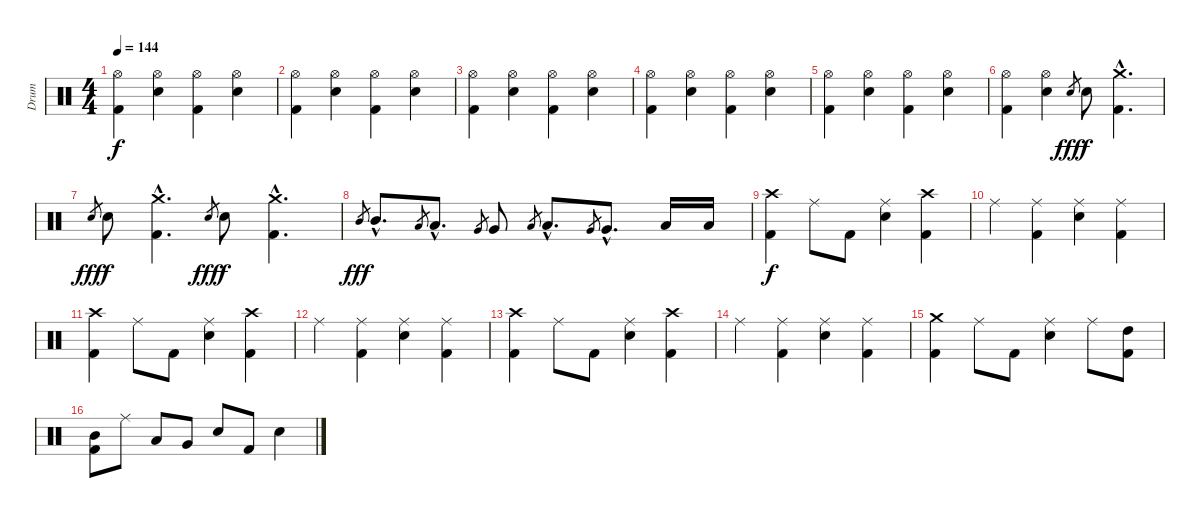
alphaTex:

\track ("Drum" "Drum") {instrument percussion}
\staff {score}
\articulation defaults
\ts (4 4)
\tempo 144
\clef neutral
\ks c
("Hi-Hat (open)" "Kick (hit) 2").4{dy f} ("Hi-Hat (open)" "Electric Snare (hit)").4 ("Hi-Hat (open)" "Kick (hit) 2").4 ("Hi-Hat (open)" "Electric Snare (hit)").4 |
("Hi-Hat (open)" "Kick (hit) 2").4 ("Hi-Hat (open)" "Electric Snare (hit)").4 ("Hi-Hat (open)" "Kick (hit) 2").4 ("Hi-Hat (open)" "Electric Snare (hit)").4 |
("Hi-Hat (open)" "Kick (hit) 2").4 ("Hi-Hat (open)" "Electric Snare (hit)").4 ("Hi-Hat (open)" "Kick (hit) 2").4 ("Hi-Hat (open)" "Electric Snare (hit)").4 |
("Hi-Hat (open)" "Kick (hit) 2").4 ("Hi-Hat (open)" "Electric Snare (hit)").4 ("Hi-Hat (open)" "Kick (hit) 2").4 ("Hi-Hat (open)" "Electric Snare (hit)").4 |
("Hi-Hat (open)" "Kick (hit) 2").4 ("Hi-Hat (open)" "Electric Snare (hit)").4 ("Hi-Hat (open)" "Kick (hit) 2").4 ("Hi-Hat (open)" "Electric Snare (hit)").4 |
("Hi-Hat (open)" "Kick (hit) 2").4 ("Hi-Hat (open)" "Electric Snare (hit)").4 "Electric Snare (hit)".8{gr dy fff} "Electric Snare (hit)".8{dy f} ("Crash medium (hit)"{hac} "Kick (hit) 2"{hac}).4{d} |
"Electric Snare (hit)".8{gr dy fff} "Electric Snare (hit)".8{dy f} ("Crash medium (hit)"{hac} "Kick (hit) 2"{hac}).4{d} "Electric Snare (hit)".8{gr dy fff} "Electric Snare (hit)".8{dy f} ("Crash medium (hit)"{hac} "Kick (hit) 2"{hac}).4{d} |
"Mid Tom (hit)".8{gr dy fff} "Mid Tom (hit)"{hac}.8{d} "Low Tom (hit)".8{gr} "Low Tom (hit)"{hac}.8{d} "Very Low Tom (hit)".8{gr} "Very Low Tom (hit)".8 "Low Tom (hit)".8{gr} "Low Tom (hit)"{hac}.8{d} "Very Low Tom (hit)".8{gr} "Very Low Tom (hit)"{hac}.8{d} "Low Tom (hit)".16 "Low Tom (hit)".16 |
("Crash high (hit)" "Kick (hit) 2").4{dy f} "Ride (middle)".8 "Kick (hit) 2".8 ("Ride (middle)" "Electric Snare (hit)").4 ("Crash high (hit)" "Kick (hit) 2").4 |
"Ride (middle)".4 ("Ride (middle)" "Kick (hit) 2").4 ("Ride (middle)" "Electric Snare (hit)").4 ("Ride (middle)" "Kick (hit) 2").4 |
("Crash high (hit)" "Kick (hit) 2").4 "Ride (middle)".8 "Kick (hit) 2".8 ("Ride (middle)" "Electric Snare (hit)").4 ("Crash high (hit)" "Kick (hit) 2").4 |
"Ride (middle)".4 ("Ride (middle)" "Kick (hit) 2").4 ("Ride (middle)" "Electric Snare (hit)").4 ("Ride (middle)" "Kick (hit) 2").4 |
("Crash high (hit)" "Kick (hit) 2").4 "Ride (middle)".8 "Kick (hit) 2".8 ("Ride (middle)" "Electric Snare (hit)").4 ("Crash high (hit)" "Kick (hit) 2").4 |
"Ride (middle)".4 ("Ride (middle)" "Kick (hit) 2").4 ("Ride (middle)" "Electric Snare (hit)").4 ("Ride (middle)" "Kick (hit) 2").4 |
("Crash medium (hit)" "Kick (hit) 2").4 "Ride (middle)".8 "Kick (hit) 2".8 ("Ride (middle)" "Electric Snare (hit)").4 "Ride (middle)".8 ("High Tom (hit)" "Kick (hit) 2").8 |
("Mid Tom (hit)" "Kick (hit) 2").8 "Ride (middle)".8 "Low Tom (hit)".8 "Very Low Tom (hit)".8 "Electric Snare (hit)".8 "Kick (hit) 2".8 "Electric Snare (hit)".4
